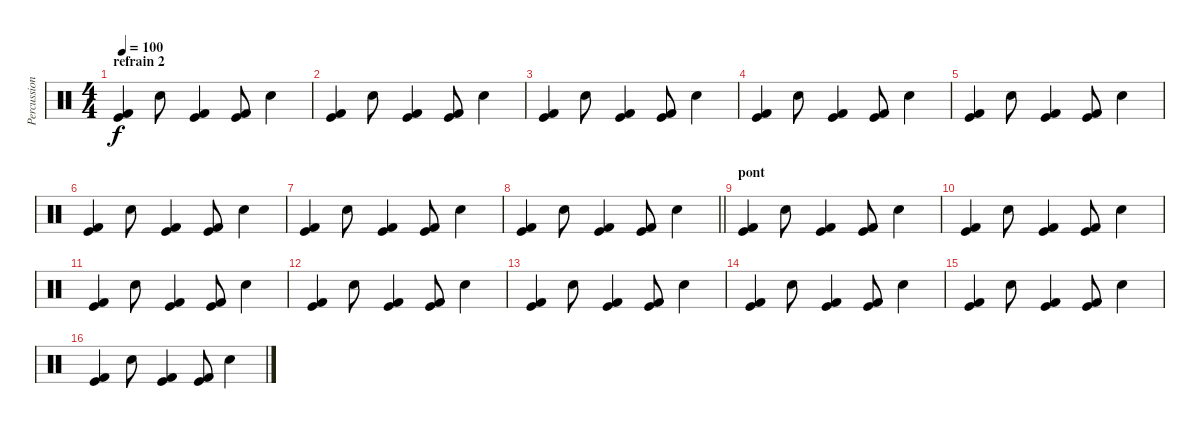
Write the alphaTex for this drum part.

\track ("Percussions" "Percussion") {instrument percussion}
\staff {score}
\articulation defaults
\ts (4 4)
\section ("" "refrain 2")
\tempo 100
\clef neutral
\ks c
("Kick (hit)" "Kick (hit) 2").4{dy f} "Electric Snare (hit)".8 ("Kick (hit)" "Kick (hit) 2").4 ("Kick (hit)" "Kick (hit) 2").8 "Snare (hit) 2".4 |
("Kick (hit)" "Kick (hit) 2").4 "Electric Snare (hit)".8 ("Kick (hit)" "Kick (hit) 2").4 ("Kick (hit)" "Kick (hit) 2").8 "Snare (hit) 2".4 |
("Kick (hit)" "Kick (hit) 2").4 "Electric Snare (hit)".8 ("Kick (hit)" "Kick (hit) 2").4 ("Kick (hit)" "Kick (hit) 2").8 "Snare (hit) 2".4 |
("Kick (hit)" "Kick (hit) 2").4 "Electric Snare (hit)".8 ("Kick (hit)" "Kick (hit) 2").4 ("Kick (hit)" "Kick (hit) 2").8 "Snare (hit) 2".4 |
("Kick (hit)" "Kick (hit) 2").4 "Electric Snare (hit)".8 ("Kick (hit)" "Kick (hit) 2").4 ("Kick (hit)" "Kick (hit) 2").8 "Snare (hit) 2".4 |
("Kick (hit)" "Kick (hit) 2").4 "Electric Snare (hit)".8 ("Kick (hit)" "Kick (hit) 2").4 ("Kick (hit)" "Kick (hit) 2").8 "Snare (hit) 2".4 |
("Kick (hit)" "Kick (hit) 2").4 "Electric Snare (hit)".8 ("Kick (hit)" "Kick (hit) 2").4 ("Kick (hit)" "Kick (hit) 2").8 "Snare (hit) 2".4 |
\barLineRight lightlight
("Kick (hit)" "Kick (hit) 2").4 "Electric Snare (hit)".8 ("Kick (hit)" "Kick (hit) 2").4 ("Kick (hit)" "Kick (hit) 2").8 "Snare (hit) 2".4 |
\section ("" "pont")
("Kick (hit)" "Kick (hit) 2").4 "Electric Snare (hit)".8 ("Kick (hit)" "Kick (hit) 2").4 ("Kick (hit)" "Kick (hit) 2").8 "Snare (hit) 2".4 |
("Kick (hit)" "Kick (hit) 2").4 "Electric Snare (hit)".8 ("Kick (hit)" "Kick (hit) 2").4 ("Kick (hit)" "Kick (hit) 2").8 "Snare (hit) 2".4 |
("Kick (hit)" "Kick (hit) 2").4 "Electric Snare (hit)".8 ("Kick (hit)" "Kick (hit) 2").4 ("Kick (hit)" "Kick (hit) 2").8 "Snare (hit) 2".4 |
("Kick (hit)" "Kick (hit) 2").4 "Electric Snare (hit)".8 ("Kick (hit)" "Kick (hit) 2").4 ("Kick (hit)" "Kick (hit) 2").8 "Snare (hit) 2".4 |
("Kick (hit)" "Kick (hit) 2").4 "Electric Snare (hit)".8 ("Kick (hit)" "Kick (hit) 2").4 ("Kick (hit)" "Kick (hit) 2").8 "Snare (hit) 2".4 |
("Kick (hit)" "Kick (hit) 2").4 "Electric Snare (hit)".8 ("Kick (hit)" "Kick (hit) 2").4 ("Kick (hit)" "Kick (hit) 2").8 "Snare (hit) 2".4 |
("Kick (hit)" "Kick (hit) 2").4 "Electric Snare (hit)".8 ("Kick (hit)" "Kick (hit) 2").4 ("Kick (hit)" "Kick (hit) 2").8 "Snare (hit) 2".4 |
("Kick (hit)" "Kick (hit) 2").4 "Electric Snare (hit)".8 ("Kick (hit)" "Kick (hit) 2").4 ("Kick (hit)" "Kick (hit) 2").8 "Snare (hit) 2".4
